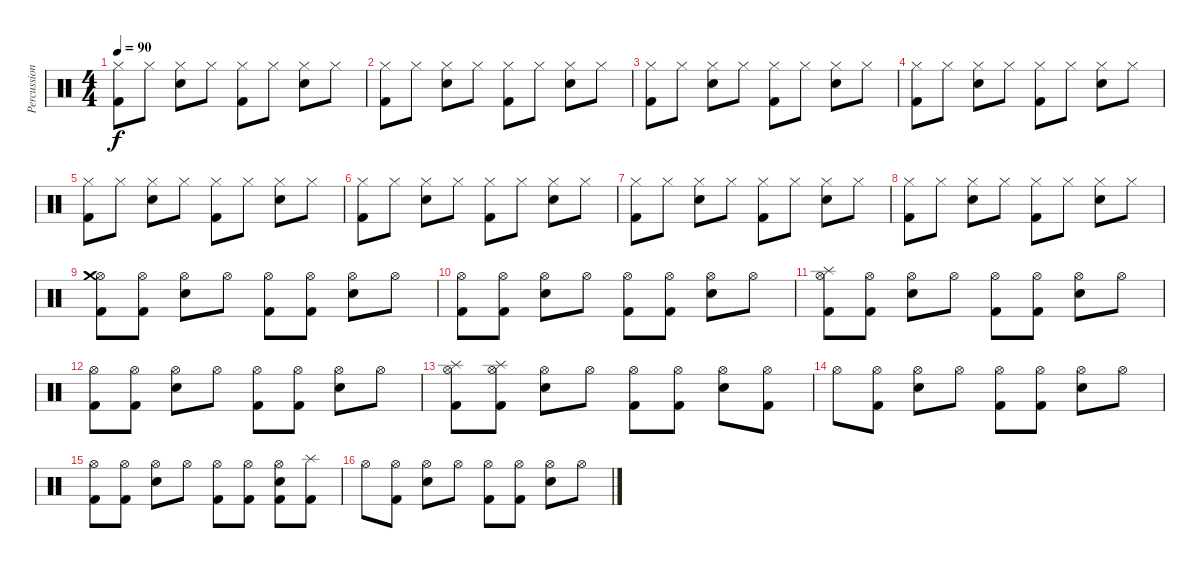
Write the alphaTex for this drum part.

\track ("Percussion" "Percussion") {instrument percussion}
\staff {score}
\articulation defaults
\ts (4 4)
\tempo 90
\clef neutral
\ks c
("Hi-Hat (closed)" "Kick (hit) 2").8{dy f} "Hi-Hat (closed)".8 ("Hi-Hat (closed)" "Snare (hit) 2").8 "Hi-Hat (closed)".8 ("Hi-Hat (closed)" "Kick (hit) 2").8 "Hi-Hat (closed)".8 ("Hi-Hat (closed)" "Snare (hit) 2").8 "Hi-Hat (closed)".8 |
("Hi-Hat (closed)" "Kick (hit) 2").8 "Hi-Hat (closed)".8 ("Hi-Hat (closed)" "Snare (hit) 2").8 "Hi-Hat (closed)".8 ("Hi-Hat (closed)" "Kick (hit) 2").8 "Hi-Hat (closed)".8 ("Hi-Hat (closed)" "Snare (hit) 2").8 "Hi-Hat (closed)".8 |
("Hi-Hat (closed)" "Kick (hit) 2").8 "Hi-Hat (closed)".8 ("Hi-Hat (closed)" "Snare (hit) 2").8 "Hi-Hat (closed)".8 ("Hi-Hat (closed)" "Kick (hit) 2").8 "Hi-Hat (closed)".8 ("Hi-Hat (closed)" "Snare (hit) 2").8 "Hi-Hat (closed)".8 |
("Hi-Hat (closed)" "Kick (hit) 2").8 "Hi-Hat (closed)".8 ("Hi-Hat (closed)" "Snare (hit) 2").8 "Hi-Hat (closed)".8 ("Hi-Hat (closed)" "Kick (hit) 2").8 "Hi-Hat (closed)".8 ("Hi-Hat (closed)" "Snare (hit) 2").8 "Hi-Hat (closed)".8 |
("Hi-Hat (closed)" "Kick (hit) 2").8 "Hi-Hat (closed)".8 ("Hi-Hat (closed)" "Snare (hit) 2").8 "Hi-Hat (closed)".8 ("Hi-Hat (closed)" "Kick (hit) 2").8 "Hi-Hat (closed)".8 ("Hi-Hat (closed)" "Snare (hit) 2").8 "Hi-Hat (closed)".8 |
("Hi-Hat (closed)" "Kick (hit) 2").8 "Hi-Hat (closed)".8 ("Hi-Hat (closed)" "Snare (hit) 2").8 "Hi-Hat (closed)".8 ("Hi-Hat (closed)" "Kick (hit) 2").8 "Hi-Hat (closed)".8 ("Hi-Hat (closed)" "Snare (hit) 2").8 "Hi-Hat (closed)".8 |
("Hi-Hat (closed)" "Kick (hit) 2").8 "Hi-Hat (closed)".8 ("Hi-Hat (closed)" "Snare (hit) 2").8 "Hi-Hat (closed)".8 ("Hi-Hat (closed)" "Kick (hit) 2").8 "Hi-Hat (closed)".8 ("Hi-Hat (closed)" "Snare (hit) 2").8 "Hi-Hat (closed)".8 |
("Hi-Hat (closed)" "Kick (hit) 2").8 "Hi-Hat (closed)".8 ("Hi-Hat (closed)" "Snare (hit) 2").8 "Hi-Hat (closed)".8 ("Hi-Hat (closed)" "Kick (hit) 2").8 "Hi-Hat (closed)".8 ("Hi-Hat (closed)" "Snare (hit) 2").8 "Hi-Hat (closed)".8 |
("Hi-Hat (open)" "Crash medium (hit)" "Kick (hit) 2").8 ("Hi-Hat (open)" "Kick (hit) 2").8 ("Hi-Hat (open)" "Snare (hit) 2").8 "Hi-Hat (open)".8 ("Hi-Hat (open)" "Kick (hit) 2").8 ("Hi-Hat (open)" "Kick (hit) 2").8 ("Hi-Hat (open)" "Snare (hit) 2").8 "Hi-Hat (open)".8 |
("Hi-Hat (open)" "Kick (hit) 2").8 ("Hi-Hat (open)" "Kick (hit) 2").8 ("Hi-Hat (open)" "Snare (hit) 2").8 "Hi-Hat (open)".8 ("Hi-Hat (open)" "Kick (hit) 2").8 ("Hi-Hat (open)" "Kick (hit) 2").8 ("Hi-Hat (open)" "Snare (hit) 2").8 "Hi-Hat (open)".8 |
("Hi-Hat (open)" "Splash (hit)" "Kick (hit) 2").8 ("Hi-Hat (open)" "Kick (hit) 2").8 ("Hi-Hat (open)" "Snare (hit) 2").8 "Hi-Hat (open)".8 ("Hi-Hat (open)" "Kick (hit) 2").8 ("Hi-Hat (open)" "Kick (hit) 2").8 ("Hi-Hat (open)" "Snare (hit) 2").8 "Hi-Hat (open)".8 |
("Hi-Hat (open)" "Kick (hit) 2").8 ("Hi-Hat (open)" "Kick (hit) 2").8 ("Hi-Hat (open)" "Snare (hit) 2").8 "Hi-Hat (open)".8 ("Hi-Hat (open)" "Kick (hit) 2").8 ("Hi-Hat (open)" "Kick (hit) 2").8 ("Hi-Hat (open)" "Snare (hit) 2").8 "Hi-Hat (open)".8 |
("Splash (hit)" "Hi-Hat (open)" "Kick (hit) 2").8 ("Splash (hit)" "Hi-Hat (open)" "Kick (hit) 2").8 ("Hi-Hat (open)" "Snare (hit) 2").8 "Hi-Hat (open)".8 ("Hi-Hat (open)" "Kick (hit) 2").8 ("Hi-Hat (open)" "Kick (hit) 2").8 ("Hi-Hat (open)" "Snare (hit) 2").8 ("Hi-Hat (open)" "Kick (hit) 2").8 |
"Hi-Hat (open)".8 ("Hi-Hat (open)" "Kick (hit) 2").8 ("Hi-Hat (open)" "Snare (hit) 2").8 "Hi-Hat (open)".8 ("Hi-Hat (open)" "Kick (hit) 2").8 ("Hi-Hat (open)" "Kick (hit) 2").8 ("Hi-Hat (open)" "Snare (hit) 2").8 "Hi-Hat (open)".8 |
("Hi-Hat (open)" "Kick (hit) 2").8 ("Hi-Hat (open)" "Kick (hit) 2").8 ("Hi-Hat (open)" "Snare (hit) 2").8 "Hi-Hat (open)".8 ("Hi-Hat (open)" "Kick (hit) 2").8 ("Hi-Hat (open)" "Kick (hit) 2").8 ("Hi-Hat (open)" "Snare (hit) 2" "Kick (hit) 2").8 ("Splash (hit)" "Kick (hit) 2").8 |
"Hi-Hat (open)".8 ("Hi-Hat (open)" "Kick (hit) 2").8 ("Hi-Hat (open)" "Snare (hit) 2").8 "Hi-Hat (open)".8 ("Hi-Hat (open)" "Kick (hit) 2").8 ("Hi-Hat (open)" "Kick (hit) 2").8 ("Hi-Hat (open)" "Snare (hit) 2").8 "Hi-Hat (open)".8
